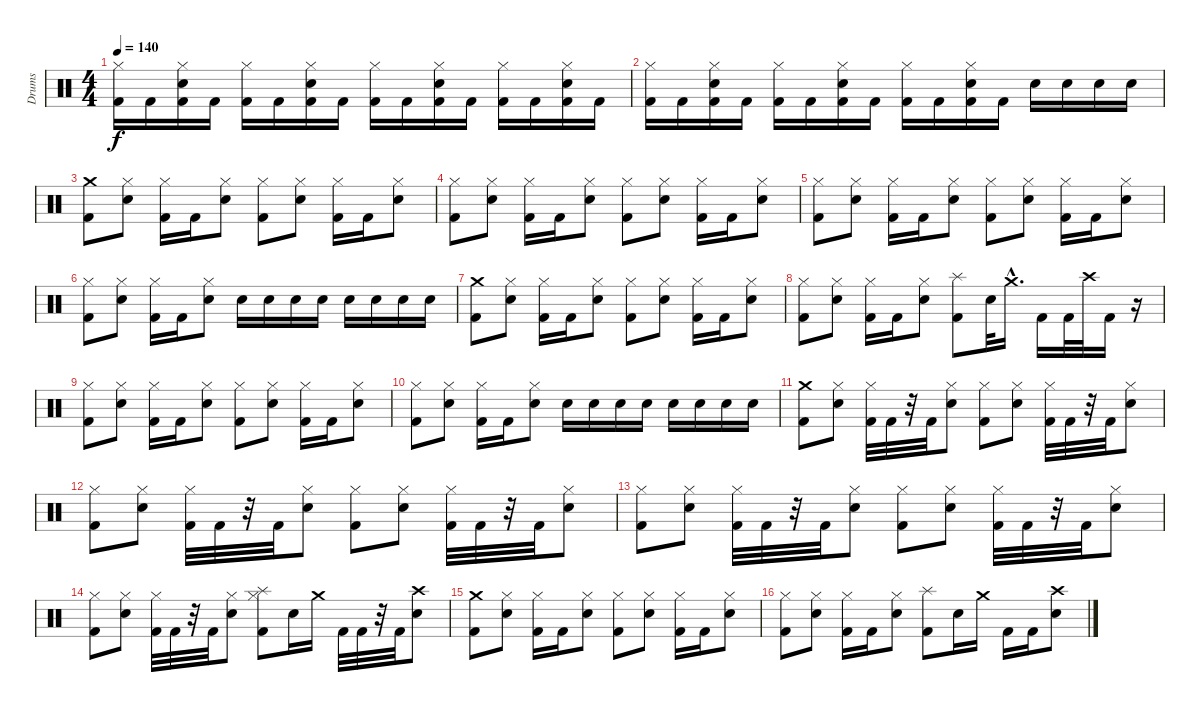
\track ("Drums" "Drums") {instrument percussion}
\staff {score}
\articulation defaults
\ts (4 4)
\tempo 140
\clef neutral
\ks c
("Hi-Hat (closed)" "Kick (hit) 2").16{dy f} "Kick (hit) 2".16 ("Hi-Hat (closed)" "Electric Snare (hit)" "Kick (hit) 2").16 "Kick (hit) 2".16 ("Hi-Hat (closed)" "Kick (hit) 2").16 "Kick (hit) 2".16 ("Hi-Hat (closed)" "Electric Snare (hit)" "Kick (hit) 2").16 "Kick (hit) 2".16 ("Hi-Hat (closed)" "Kick (hit) 2").16 "Kick (hit) 2".16 ("Hi-Hat (closed)" "Electric Snare (hit)" "Kick (hit) 2").16 "Kick (hit) 2".16 ("Hi-Hat (closed)" "Kick (hit) 2").16 "Kick (hit) 2".16 ("Hi-Hat (closed)" "Electric Snare (hit)" "Kick (hit) 2").16 "Kick (hit) 2".16 |
("Hi-Hat (closed)" "Kick (hit) 2").16 "Kick (hit) 2".16 ("Hi-Hat (closed)" "Electric Snare (hit)" "Kick (hit) 2").16 "Kick (hit) 2".16 ("Hi-Hat (closed)" "Kick (hit) 2").16 "Kick (hit) 2".16 ("Hi-Hat (closed)" "Electric Snare (hit)" "Kick (hit) 2").16 "Kick (hit) 2".16 ("Hi-Hat (closed)" "Kick (hit) 2").16 "Kick (hit) 2".16 ("Hi-Hat (closed)" "Electric Snare (hit)" "Kick (hit) 2").16 "Kick (hit) 2".16 "Electric Snare (hit)".16 "Electric Snare (hit)".16 "Electric Snare (hit)".16 "Electric Snare (hit)".16 |
("Crash medium (hit)" "Kick (hit) 2").8 ("Hi-Hat (closed)" "Electric Snare (hit)").8 ("Hi-Hat (closed)" "Kick (hit) 2").16 "Kick (hit) 2".16 ("Hi-Hat (closed)" "Electric Snare (hit)").8 ("Hi-Hat (closed)" "Kick (hit) 2").8 ("Hi-Hat (closed)" "Electric Snare (hit)").8 ("Hi-Hat (closed)" "Kick (hit) 2").16 "Kick (hit) 2".16 ("Hi-Hat (closed)" "Electric Snare (hit)").8 |
("Hi-Hat (closed)" "Kick (hit) 2").8 ("Hi-Hat (closed)" "Electric Snare (hit)").8 ("Hi-Hat (closed)" "Kick (hit) 2").16 "Kick (hit) 2".16 ("Hi-Hat (closed)" "Electric Snare (hit)").8 ("Hi-Hat (closed)" "Kick (hit) 2").8 ("Hi-Hat (closed)" "Electric Snare (hit)").8 ("Hi-Hat (closed)" "Kick (hit) 2").16 "Kick (hit) 2".16 ("Hi-Hat (closed)" "Electric Snare (hit)").8 |
("Hi-Hat (closed)" "Kick (hit) 2").8 ("Hi-Hat (closed)" "Electric Snare (hit)").8 ("Hi-Hat (closed)" "Kick (hit) 2").16 "Kick (hit) 2".16 ("Hi-Hat (closed)" "Electric Snare (hit)").8 ("Hi-Hat (closed)" "Kick (hit) 2").8 ("Hi-Hat (closed)" "Electric Snare (hit)").8 ("Hi-Hat (closed)" "Kick (hit) 2").16 "Kick (hit) 2".16 ("Hi-Hat (closed)" "Electric Snare (hit)").8 |
("Hi-Hat (closed)" "Kick (hit) 2").8 ("Hi-Hat (closed)" "Electric Snare (hit)").8 ("Hi-Hat (closed)" "Kick (hit) 2").16 "Kick (hit) 2".16 ("Hi-Hat (closed)" "Electric Snare (hit)").8 "Electric Snare (hit)".16 "Electric Snare (hit)".16 "Electric Snare (hit)".16 "Electric Snare (hit)".16 "Electric Snare (hit)".16 "Electric Snare (hit)".16 "Electric Snare (hit)".16 "Electric Snare (hit)".16 |
("Crash medium (hit)" "Kick (hit) 2").8 ("Hi-Hat (closed)" "Electric Snare (hit)").8 ("Hi-Hat (closed)" "Kick (hit) 2").16 "Kick (hit) 2".16 ("Hi-Hat (closed)" "Electric Snare (hit)").8 ("Hi-Hat (closed)" "Kick (hit) 2").8 ("Hi-Hat (closed)" "Electric Snare (hit)").8 ("Hi-Hat (closed)" "Kick (hit) 2").16 "Kick (hit) 2".16 ("Hi-Hat (closed)" "Electric Snare (hit)").8 |
("Hi-Hat (closed)" "Kick (hit) 2").8 ("Hi-Hat (closed)" "Electric Snare (hit)").8 ("Hi-Hat (closed)" "Kick (hit) 2").16 "Kick (hit) 2".16 ("Hi-Hat (closed)" "Electric Snare (hit)").8 ("Splash (hit)" "Kick (hit) 2").8 "Electric Snare (hit)".32 "Crash medium (hit)"{hac}.16{d} "Kick (hit) 2".16 "Kick (hit) 2".32 "Crash high (hit)".32 "Kick (hit) 2".16 r.16 |
("Hi-Hat (closed)" "Kick (hit) 2").8 ("Hi-Hat (closed)" "Electric Snare (hit)").8 ("Hi-Hat (closed)" "Kick (hit) 2").16 "Kick (hit) 2".16 ("Hi-Hat (closed)" "Electric Snare (hit)").8 ("Hi-Hat (closed)" "Kick (hit) 2").8 ("Hi-Hat (closed)" "Electric Snare (hit)").8 ("Hi-Hat (closed)" "Kick (hit) 2").16 "Kick (hit) 2".16 ("Hi-Hat (closed)" "Electric Snare (hit)").8 |
("Hi-Hat (closed)" "Kick (hit) 2").8 ("Hi-Hat (closed)" "Electric Snare (hit)").8 ("Hi-Hat (closed)" "Kick (hit) 2").16 "Kick (hit) 2".16 ("Hi-Hat (closed)" "Electric Snare (hit)").8 "Electric Snare (hit)".16 "Electric Snare (hit)".16 "Electric Snare (hit)".16 "Electric Snare (hit)".16 "Electric Snare (hit)".16 "Electric Snare (hit)".16 "Electric Snare (hit)".16 "Electric Snare (hit)".16 |
("Crash medium (hit)" "Kick (hit) 2").8 ("Hi-Hat (closed)" "Electric Snare (hit)").8 ("Hi-Hat (closed)" "Kick (hit) 2").32 "Kick (hit) 2".32 r.32 "Kick (hit) 2".32 ("Hi-Hat (closed)" "Electric Snare (hit)").8 ("Hi-Hat (closed)" "Kick (hit) 2").8 ("Hi-Hat (closed)" "Electric Snare (hit)").8 ("Hi-Hat (closed)" "Kick (hit) 2").32 "Kick (hit) 2".32 r.32 "Kick (hit) 2".32 ("Hi-Hat (closed)" "Electric Snare (hit)").8 |
("Hi-Hat (closed)" "Kick (hit) 2").8 ("Hi-Hat (closed)" "Electric Snare (hit)").8 ("Hi-Hat (closed)" "Kick (hit) 2").32 "Kick (hit) 2".32 r.32 "Kick (hit) 2".32 ("Hi-Hat (closed)" "Electric Snare (hit)").8 ("Hi-Hat (closed)" "Kick (hit) 2").8 ("Hi-Hat (closed)" "Electric Snare (hit)").8 ("Hi-Hat (closed)" "Kick (hit) 2").32 "Kick (hit) 2".32 r.32 "Kick (hit) 2".32 ("Hi-Hat (closed)" "Electric Snare (hit)").8 |
("Hi-Hat (closed)" "Kick (hit) 2").8 ("Hi-Hat (closed)" "Electric Snare (hit)").8 ("Hi-Hat (closed)" "Kick (hit) 2").32 "Kick (hit) 2".32 r.32 "Kick (hit) 2".32 ("Hi-Hat (closed)" "Electric Snare (hit)").8 ("Hi-Hat (closed)" "Kick (hit) 2").8 ("Hi-Hat (closed)" "Electric Snare (hit)").8 ("Hi-Hat (closed)" "Kick (hit) 2").32 "Kick (hit) 2".32 r.32 "Kick (hit) 2".32 ("Hi-Hat (closed)" "Electric Snare (hit)").8 |
("Hi-Hat (closed)" "Kick (hit) 2").8 ("Hi-Hat (closed)" "Electric Snare (hit)").8 ("Hi-Hat (closed)" "Kick (hit) 2").32 "Kick (hit) 2".32 r.32 "Kick (hit) 2".32 ("Hi-Hat (closed)" "Electric Snare (hit)").8 ("Splash (hit)" "Hi-Hat (closed)" "Kick (hit) 2").8 "Electric Snare (hit)".16 "Crash medium (hit)".16 "Kick (hit) 2".32 "Kick (hit) 2".32 r.32 "Kick (hit) 2".32 ("Crash high (hit)" "Electric Snare (hit)").8 |
("Crash medium (hit)" "Kick (hit) 2").8 ("Hi-Hat (closed)" "Electric Snare (hit)").8 ("Hi-Hat (closed)" "Kick (hit) 2").16 "Kick (hit) 2".16 ("Hi-Hat (closed)" "Electric Snare (hit)").8 ("Hi-Hat (closed)" "Kick (hit) 2").8 ("Hi-Hat (closed)" "Electric Snare (hit)").8 ("Hi-Hat (closed)" "Kick (hit) 2").16 "Kick (hit) 2".16 ("Hi-Hat (closed)" "Electric Snare (hit)").8 |
("Hi-Hat (closed)" "Kick (hit) 2").8 ("Hi-Hat (closed)" "Electric Snare (hit)").8 ("Hi-Hat (closed)" "Kick (hit) 2").16 "Kick (hit) 2".16 ("Hi-Hat (closed)" "Electric Snare (hit)").8 ("Splash (hit)" "Kick (hit) 2").8 "Electric Snare (hit)".16 "Crash medium (hit)".16 "Kick (hit) 2".16 "Kick (hit) 2".16 ("Crash high (hit)" "Electric Snare (hit)").8
